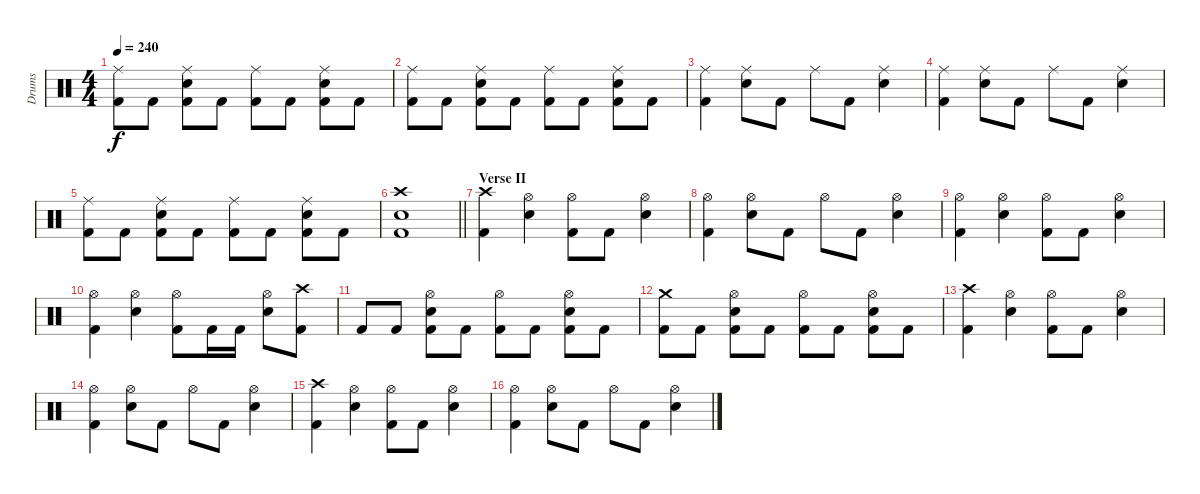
\track ("Drums" "Drums") {instrument percussion}
\staff {score}
\articulation defaults
\ts (4 4)
\tempo 240
\clef neutral
\ks c
("Ride (middle)" "Kick (hit) 2").8{dy f} "Kick (hit) 2".8 ("Ride (middle)" "Snare (hit) 2" "Kick (hit) 2").8 "Kick (hit) 2".8 ("Ride (middle)" "Kick (hit) 2").8 "Kick (hit) 2".8 ("Ride (middle)" "Snare (hit) 2" "Kick (hit) 2").8 "Kick (hit) 2".8 |
("Ride (middle)" "Kick (hit) 2").8 "Kick (hit) 2".8 ("Ride (middle)" "Snare (hit) 2" "Kick (hit) 2").8 "Kick (hit) 2".8 ("Ride (middle)" "Kick (hit) 2").8 "Kick (hit) 2".8 ("Ride (middle)" "Snare (hit) 2" "Kick (hit) 2").8 "Kick (hit) 2".8 |
("Ride (middle)" "Kick (hit) 2").4 ("Ride (middle)" "Snare (hit) 2").8 "Kick (hit) 2".8 "Ride (middle)".8 "Kick (hit) 2".8 ("Ride (middle)" "Snare (hit) 2").4 |
("Ride (middle)" "Kick (hit) 2").4 ("Ride (middle)" "Snare (hit) 2").8 "Kick (hit) 2".8 "Ride (middle)".8 "Kick (hit) 2".8 ("Ride (middle)" "Snare (hit) 2").4 |
("Ride (middle)" "Kick (hit) 2").8 "Kick (hit) 2".8 ("Ride (middle)" "Snare (hit) 2" "Kick (hit) 2").8 "Kick (hit) 2".8 ("Ride (middle)" "Kick (hit) 2").8 "Kick (hit) 2".8 ("Ride (middle)" "Snare (hit) 2" "Kick (hit) 2").8 "Kick (hit) 2".8 |
\barLineRight lightlight
("Crash high (hit)" "Snare (hit) 2" "Kick (hit) 2").1 |
\section ("" "Verse II")
("Crash high (hit)" "Kick (hit) 2").4 ("Hi-Hat (open)" "Snare (hit) 2").4 ("Hi-Hat (open)" "Kick (hit) 2").8 "Kick (hit) 2".8 ("Hi-Hat (open)" "Snare (hit) 2").4 |
("Hi-Hat (open)" "Kick (hit) 2").4 ("Hi-Hat (open)" "Snare (hit) 2").8 "Kick (hit) 2".8 "Hi-Hat (open)".8 "Kick (hit) 2".8 ("Hi-Hat (open)" "Snare (hit) 2").4 |
("Hi-Hat (open)" "Kick (hit) 2").4 ("Hi-Hat (open)" "Snare (hit) 2").4 ("Hi-Hat (open)" "Kick (hit) 2").8 "Kick (hit) 2".8 ("Hi-Hat (open)" "Snare (hit) 2").4 |
("Hi-Hat (open)" "Kick (hit) 2").4 ("Hi-Hat (open)" "Snare (hit) 2").4 ("Hi-Hat (open)" "Kick (hit) 2").8 "Kick (hit) 2".16 "Kick (hit) 2".16 ("Hi-Hat (open)" "Snare (hit) 2").8 ("Crash high (hit)" "Kick (hit) 2").8 |
"Kick (hit) 2".8 "Kick (hit) 2".8 ("Hi-Hat (open)" "Snare (hit) 2" "Kick (hit) 2").8 "Kick (hit) 2".8 ("Hi-Hat (open)" "Kick (hit) 2").8 "Kick (hit) 2".8 ("Hi-Hat (open)" "Snare (hit) 2" "Kick (hit) 2").8 "Kick (hit) 2".8 |
("Crash medium (hit)" "Kick (hit) 2").8 "Kick (hit) 2".8 ("Hi-Hat (open)" "Snare (hit) 2" "Kick (hit) 2").8 "Kick (hit) 2".8 ("Hi-Hat (open)" "Kick (hit) 2").8 "Kick (hit) 2".8 ("Hi-Hat (open)" "Snare (hit) 2" "Kick (hit) 2").8 "Kick (hit) 2".8 |
("Crash high (hit)" "Kick (hit) 2").4 ("Hi-Hat (open)" "Snare (hit) 2").4 ("Hi-Hat (open)" "Kick (hit) 2").8 "Kick (hit) 2".8 ("Hi-Hat (open)" "Snare (hit) 2").4 |
("Hi-Hat (open)" "Kick (hit) 2").4 ("Hi-Hat (open)" "Snare (hit) 2").8 "Kick (hit) 2".8 "Hi-Hat (open)".8 "Kick (hit) 2".8 ("Hi-Hat (open)" "Snare (hit) 2").4 |
("Crash high (hit)" "Kick (hit) 2").4 ("Hi-Hat (open)" "Snare (hit) 2").4 ("Hi-Hat (open)" "Kick (hit) 2").8 "Kick (hit) 2".8 ("Hi-Hat (open)" "Snare (hit) 2").4 |
("Hi-Hat (open)" "Kick (hit) 2").4 ("Hi-Hat (open)" "Snare (hit) 2").8 "Kick (hit) 2".8 "Hi-Hat (open)".8 "Kick (hit) 2".8 ("Hi-Hat (open)" "Snare (hit) 2").4
